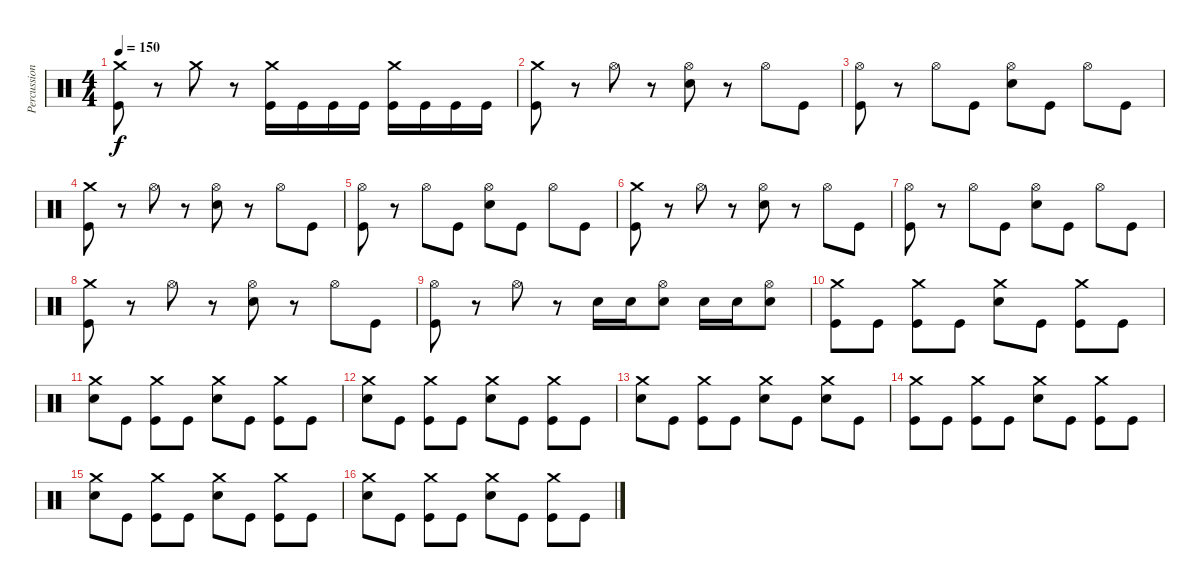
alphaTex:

\track ("Percussion" "Percussion") {instrument percussion}
\staff {score}
\articulation defaults
\ts (4 4)
\tempo 150
\clef neutral
\ks c
("Crash medium (hit)" "Kick (hit)").8{dy f} r.8 "Crash medium (hit)".8 r.8 ("Crash medium (hit)" "Kick (hit)").16 "Kick (hit)".16 "Kick (hit)".16 "Kick (hit)".16 ("Crash medium (hit)" "Kick (hit)").16 "Kick (hit)".16 "Kick (hit)".16 "Kick (hit)".16 |
("Crash medium (hit)" "Kick (hit)").8 r.8 "Hi-Hat (open)".8 r.8 ("Hi-Hat (open)" "Snare (hit) 2").8 r.8 "Hi-Hat (open)".8 "Kick (hit)".8 |
("Hi-Hat (open)" "Kick (hit)").8 r.8 "Hi-Hat (open)".8 "Kick (hit)".8 ("Hi-Hat (open)" "Snare (hit) 2").8 "Kick (hit)".8 "Hi-Hat (open)".8 "Kick (hit)".8 |
("Crash medium (hit)" "Kick (hit)").8 r.8 "Hi-Hat (open)".8 r.8 ("Hi-Hat (open)" "Snare (hit) 2").8 r.8 "Hi-Hat (open)".8 "Kick (hit)".8 |
("Hi-Hat (open)" "Kick (hit)").8 r.8 "Hi-Hat (open)".8 "Kick (hit)".8 ("Hi-Hat (open)" "Snare (hit) 2").8 "Kick (hit)".8 "Hi-Hat (open)".8 "Kick (hit)".8 |
("Crash medium (hit)" "Kick (hit)").8 r.8 "Hi-Hat (open)".8 r.8 ("Hi-Hat (open)" "Snare (hit) 2").8 r.8 "Hi-Hat (open)".8 "Kick (hit)".8 |
("Hi-Hat (open)" "Kick (hit)").8 r.8 "Hi-Hat (open)".8 "Kick (hit)".8 ("Hi-Hat (open)" "Snare (hit) 2").8 "Kick (hit)".8 "Hi-Hat (open)".8 "Kick (hit)".8 |
("Crash medium (hit)" "Kick (hit)").8 r.8 "Hi-Hat (open)".8 r.8 ("Hi-Hat (open)" "Snare (hit) 2").8 r.8 "Hi-Hat (open)".8 "Kick (hit)".8 |
("Hi-Hat (open)" "Kick (hit)").8 r.8 "Hi-Hat (open)".8 r.8 "Snare (hit) 2".16 "Snare (hit) 2".16 ("Hi-Hat (open)" "Snare (hit) 2").8 "Snare (hit) 2".16 "Snare (hit) 2".16 ("Hi-Hat (open)" "Snare (hit) 2").8 |
("Crash medium (hit)" "Kick (hit)").8 "Kick (hit)".8 ("Crash medium (hit)" "Kick (hit)").8 "Kick (hit)".8 ("Crash medium (hit)" "Snare (hit) 2").8 "Kick (hit)".8 ("Crash medium (hit)" "Kick (hit)").8 "Kick (hit)".8 |
("Crash medium (hit)" "Snare (hit) 2").8 "Kick (hit)".8 ("Crash medium (hit)" "Kick (hit)").8 "Kick (hit)".8 ("Crash medium (hit)" "Snare (hit) 2").8 "Kick (hit)".8 ("Crash medium (hit)" "Kick (hit)").8 "Kick (hit)".8 |
("Crash medium (hit)" "Snare (hit) 2").8 "Kick (hit)".8 ("Crash medium (hit)" "Kick (hit)").8 "Kick (hit)".8 ("Crash medium (hit)" "Snare (hit) 2").8 "Kick (hit)".8 ("Crash medium (hit)" "Kick (hit)").8 "Kick (hit)".8 |
("Crash medium (hit)" "Snare (hit) 2").8 "Kick (hit)".8 ("Crash medium (hit)" "Kick (hit)").8 "Kick (hit)".8 ("Crash medium (hit)" "Snare (hit) 2").8 "Kick (hit)".8 ("Crash medium (hit)" "Snare (hit) 2").8 "Kick (hit)".8 |
("Crash medium (hit)" "Kick (hit)").8 "Kick (hit)".8 ("Crash medium (hit)" "Kick (hit)").8 "Kick (hit)".8 ("Crash medium (hit)" "Snare (hit) 2").8 "Kick (hit)".8 ("Crash medium (hit)" "Kick (hit)").8 "Kick (hit)".8 |
("Crash medium (hit)" "Snare (hit) 2").8 "Kick (hit)".8 ("Crash medium (hit)" "Kick (hit)").8 "Kick (hit)".8 ("Crash medium (hit)" "Snare (hit) 2").8 "Kick (hit)".8 ("Crash medium (hit)" "Kick (hit)").8 "Kick (hit)".8 |
("Crash medium (hit)" "Snare (hit) 2").8 "Kick (hit)".8 ("Crash medium (hit)" "Kick (hit)").8 "Kick (hit)".8 ("Crash medium (hit)" "Snare (hit) 2").8 "Kick (hit)".8 ("Crash medium (hit)" "Kick (hit)").8 "Kick (hit)".8
